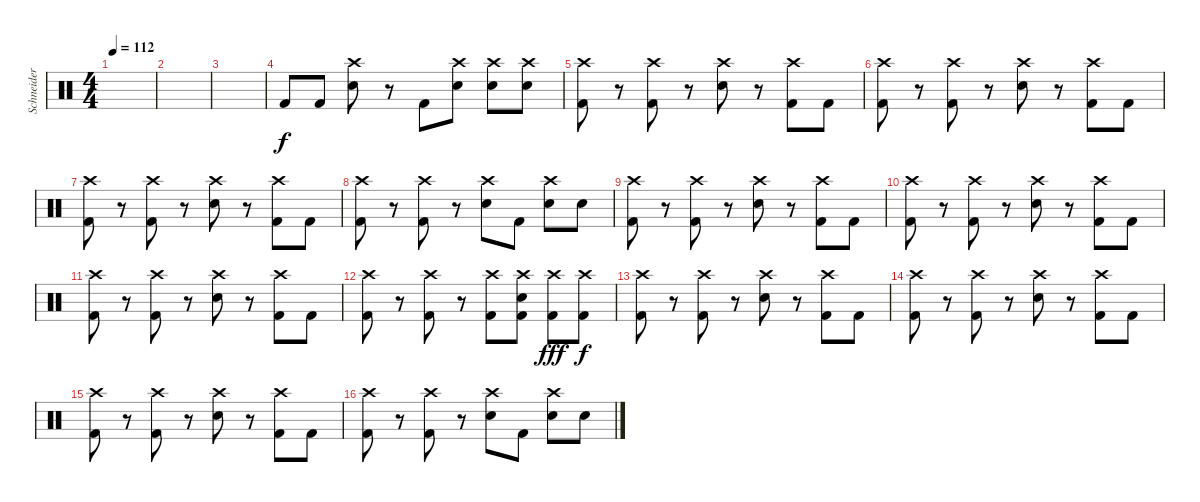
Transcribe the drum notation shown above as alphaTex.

\track ("Schneider - Drums" "Schneider ") {instrument percussion}
\staff {score}
\articulation defaults
\ts (4 4)
\tempo 112
\clef neutral
\ks c
|
|
|
"Kick (hit) 2".8 "Kick (hit) 2".8 ("Crash high (hit)" "Snare (hit) 2").8 r.8 "Kick (hit) 2".8 ("Crash high (hit)" "Snare (hit) 2").8 ("Crash high (hit)" "Snare (hit) 2").8 ("Crash high (hit)" "Snare (hit) 2").8 |
("Crash high (hit)" "Kick (hit) 2").8 r.8 ("Crash high (hit)" "Kick (hit) 2").8 r.8 ("Crash high (hit)" "Snare (hit) 2").8 r.8 ("Crash high (hit)" "Kick (hit) 2").8 "Kick (hit) 2".8 |
("Crash high (hit)" "Kick (hit) 2").8 r.8 ("Crash high (hit)" "Kick (hit) 2").8 r.8 ("Crash high (hit)" "Snare (hit) 2").8 r.8 ("Crash high (hit)" "Kick (hit) 2").8 "Kick (hit) 2".8 |
("Crash high (hit)" "Kick (hit) 2").8 r.8 ("Crash high (hit)" "Kick (hit) 2").8 r.8 ("Crash high (hit)" "Snare (hit) 2").8 r.8 ("Crash high (hit)" "Kick (hit) 2").8 "Kick (hit) 2".8 |
("Crash high (hit)" "Kick (hit) 2").8 r.8 ("Crash high (hit)" "Kick (hit) 2").8 r.8 ("Crash high (hit)" "Snare (hit) 2").8 "Kick (hit) 2".8 ("Crash high (hit)" "Snare (hit) 2").8 "Snare (hit) 2".8 |
("Crash high (hit)" "Kick (hit) 2").8 r.8 ("Crash high (hit)" "Kick (hit) 2").8 r.8 ("Crash high (hit)" "Snare (hit) 2").8 r.8 ("Crash high (hit)" "Kick (hit) 2").8 "Kick (hit) 2".8 |
("Crash high (hit)" "Kick (hit) 2").8 r.8 ("Crash high (hit)" "Kick (hit) 2").8 r.8 ("Crash high (hit)" "Snare (hit) 2").8 r.8 ("Crash high (hit)" "Kick (hit) 2").8 "Kick (hit) 2".8 |
("Crash high (hit)" "Kick (hit) 2").8 r.8 ("Crash high (hit)" "Kick (hit) 2").8 r.8 ("Crash high (hit)" "Snare (hit) 2").8 r.8 ("Crash high (hit)" "Kick (hit) 2").8 "Kick (hit) 2".8 |
("Crash high (hit)" "Kick (hit) 2").8 r.8 ("Crash high (hit)" "Kick (hit) 2").8 r.8 ("Crash high (hit)" "Kick (hit) 2").8 ("Crash high (hit)" "Snare (hit) 2" "Kick (hit) 2").8 ("Crash high (hit)" "Kick (hit) 2").8{dy fff} ("Crash high (hit)" "Kick (hit) 2").8{dy f} |
("Crash high (hit)" "Kick (hit) 2").8 r.8 ("Crash high (hit)" "Kick (hit) 2").8 r.8 ("Crash high (hit)" "Snare (hit) 2").8 r.8 ("Crash high (hit)" "Kick (hit) 2").8 "Kick (hit) 2".8 |
("Crash high (hit)" "Kick (hit) 2").8 r.8 ("Crash high (hit)" "Kick (hit) 2").8 r.8 ("Crash high (hit)" "Snare (hit) 2").8 r.8 ("Crash high (hit)" "Kick (hit) 2").8 "Kick (hit) 2".8 |
("Crash high (hit)" "Kick (hit) 2").8 r.8 ("Crash high (hit)" "Kick (hit) 2").8 r.8 ("Crash high (hit)" "Snare (hit) 2").8 r.8 ("Crash high (hit)" "Kick (hit) 2").8 "Kick (hit) 2".8 |
("Crash high (hit)" "Kick (hit) 2").8 r.8 ("Crash high (hit)" "Kick (hit) 2").8 r.8 ("Crash high (hit)" "Snare (hit) 2").8 "Kick (hit) 2".8 ("Crash high (hit)" "Snare (hit) 2").8 "Snare (hit) 2".8
